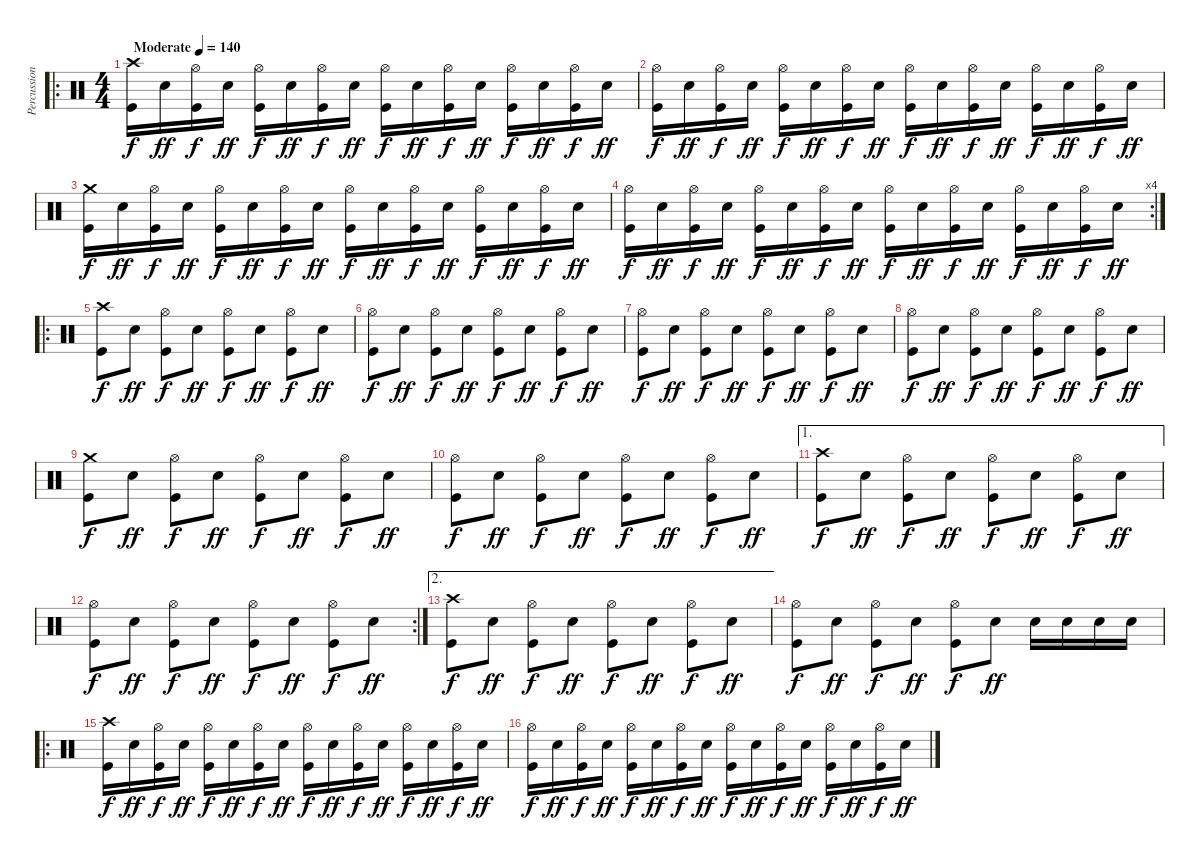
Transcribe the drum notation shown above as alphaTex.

\track ("Percussions" "Percussion") {instrument percussion}
\staff {score}
\articulation defaults
\ro
\ts (4 4)
\tempo (140 "Moderate")
\clef neutral
\ks c
("Crash high (hit)" "Kick (hit)").16{dy f} "Snare (hit) 2".16{dy ff} ("Hi-Hat (open)" "Kick (hit)").16{dy f} "Snare (hit) 2".16{dy ff} ("Hi-Hat (open)" "Kick (hit)").16{dy f} "Snare (hit) 2".16{dy ff} ("Hi-Hat (open)" "Kick (hit)").16{dy f} "Snare (hit) 2".16{dy ff} ("Hi-Hat (open)" "Kick (hit)").16{dy f} "Snare (hit) 2".16{dy ff} ("Hi-Hat (open)" "Kick (hit)").16{dy f} "Snare (hit) 2".16{dy ff} ("Hi-Hat (open)" "Kick (hit)").16{dy f} "Snare (hit) 2".16{dy ff} ("Hi-Hat (open)" "Kick (hit)").16{dy f} "Snare (hit) 2".16{dy ff} |
("Hi-Hat (open)" "Kick (hit)").16{dy f} "Snare (hit) 2".16{dy ff} ("Hi-Hat (open)" "Kick (hit)").16{dy f} "Snare (hit) 2".16{dy ff} ("Hi-Hat (open)" "Kick (hit)").16{dy f} "Snare (hit) 2".16{dy ff} ("Hi-Hat (open)" "Kick (hit)").16{dy f} "Snare (hit) 2".16{dy ff} ("Hi-Hat (open)" "Kick (hit)").16{dy f} "Snare (hit) 2".16{dy ff} ("Hi-Hat (open)" "Kick (hit)").16{dy f} "Snare (hit) 2".16{dy ff} ("Hi-Hat (open)" "Kick (hit)").16{dy f} "Snare (hit) 2".16{dy ff} ("Hi-Hat (open)" "Kick (hit)").16{dy f} "Snare (hit) 2".16{dy ff} |
("Crash medium (hit)" "Kick (hit)").16{dy f} "Snare (hit) 2".16{dy ff} ("Hi-Hat (open)" "Kick (hit)").16{dy f} "Snare (hit) 2".16{dy ff} ("Hi-Hat (open)" "Kick (hit)").16{dy f} "Snare (hit) 2".16{dy ff} ("Hi-Hat (open)" "Kick (hit)").16{dy f} "Snare (hit) 2".16{dy ff} ("Hi-Hat (open)" "Kick (hit)").16{dy f} "Snare (hit) 2".16{dy ff} ("Hi-Hat (open)" "Kick (hit)").16{dy f} "Snare (hit) 2".16{dy ff} ("Hi-Hat (open)" "Kick (hit)").16{dy f} "Snare (hit) 2".16{dy ff} ("Hi-Hat (open)" "Kick (hit)").16{dy f} "Snare (hit) 2".16{dy ff} |
\rc 4
("Hi-Hat (open)" "Kick (hit)").16{dy f} "Snare (hit) 2".16{dy ff} ("Hi-Hat (open)" "Kick (hit)").16{dy f} "Snare (hit) 2".16{dy ff} ("Hi-Hat (open)" "Kick (hit)").16{dy f} "Snare (hit) 2".16{dy ff} ("Hi-Hat (open)" "Kick (hit)").16{dy f} "Snare (hit) 2".16{dy ff} ("Hi-Hat (open)" "Kick (hit)").16{dy f} "Snare (hit) 2".16{dy ff} ("Hi-Hat (open)" "Kick (hit)").16{dy f} "Snare (hit) 2".16{dy ff} ("Hi-Hat (open)" "Kick (hit)").16{dy f} "Snare (hit) 2".16{dy ff} ("Hi-Hat (open)" "Kick (hit)").16{dy f} "Snare (hit) 2".16{dy ff} |
\ro
("Crash high (hit)" "Kick (hit)").8{dy f} "Snare (hit) 2".8{dy ff} ("Hi-Hat (open)" "Kick (hit)").8{dy f} "Snare (hit) 2".8{dy ff} ("Hi-Hat (open)" "Kick (hit)").8{dy f} "Snare (hit) 2".8{dy ff} ("Hi-Hat (open)" "Kick (hit)").8{dy f} "Snare (hit) 2".8{dy ff} |
("Hi-Hat (open)" "Kick (hit)").8{dy f} "Snare (hit) 2".8{dy ff} ("Hi-Hat (open)" "Kick (hit)").8{dy f} "Snare (hit) 2".8{dy ff} ("Hi-Hat (open)" "Kick (hit)").8{dy f} "Snare (hit) 2".8{dy ff} ("Hi-Hat (open)" "Kick (hit)").8{dy f} "Snare (hit) 2".8{dy ff} |
("Hi-Hat (open)" "Kick (hit)").8{dy f} "Snare (hit) 2".8{dy ff} ("Hi-Hat (open)" "Kick (hit)").8{dy f} "Snare (hit) 2".8{dy ff} ("Hi-Hat (open)" "Kick (hit)").8{dy f} "Snare (hit) 2".8{dy ff} ("Hi-Hat (open)" "Kick (hit)").8{dy f} "Snare (hit) 2".8{dy ff} |
("Hi-Hat (open)" "Kick (hit)").8{dy f} "Snare (hit) 2".8{dy ff} ("Hi-Hat (open)" "Kick (hit)").8{dy f} "Snare (hit) 2".8{dy ff} ("Hi-Hat (open)" "Kick (hit)").8{dy f} "Snare (hit) 2".8{dy ff} ("Hi-Hat (open)" "Kick (hit)").8{dy f} "Snare (hit) 2".8{dy ff} |
("Crash medium (hit)" "Kick (hit)").8{dy f} "Snare (hit) 2".8{dy ff} ("Hi-Hat (open)" "Kick (hit)").8{dy f} "Snare (hit) 2".8{dy ff} ("Hi-Hat (open)" "Kick (hit)").8{dy f} "Snare (hit) 2".8{dy ff} ("Hi-Hat (open)" "Kick (hit)").8{dy f} "Snare (hit) 2".8{dy ff} |
("Hi-Hat (open)" "Kick (hit)").8{dy f} "Snare (hit) 2".8{dy ff} ("Hi-Hat (open)" "Kick (hit)").8{dy f} "Snare (hit) 2".8{dy ff} ("Hi-Hat (open)" "Kick (hit)").8{dy f} "Snare (hit) 2".8{dy ff} ("Hi-Hat (open)" "Kick (hit)").8{dy f} "Snare (hit) 2".8{dy ff} |
\ae 1
("Crash high (hit)" "Kick (hit)").8{dy f} "Snare (hit) 2".8{dy ff} ("Hi-Hat (open)" "Kick (hit)").8{dy f} "Snare (hit) 2".8{dy ff} ("Hi-Hat (open)" "Kick (hit)").8{dy f} "Snare (hit) 2".8{dy ff} ("Hi-Hat (open)" "Kick (hit)").8{dy f} "Snare (hit) 2".8{dy ff} |
\rc 2
("Hi-Hat (open)" "Kick (hit)").8{dy f} "Snare (hit) 2".8{dy ff} ("Hi-Hat (open)" "Kick (hit)").8{dy f} "Snare (hit) 2".8{dy ff} ("Hi-Hat (open)" "Kick (hit)").8{dy f} "Snare (hit) 2".8{dy ff} ("Hi-Hat (open)" "Kick (hit)").8{dy f} "Snare (hit) 2".8{dy ff} |
\ae 2
("Crash high (hit)" "Kick (hit)").8{dy f} "Snare (hit) 2".8{dy ff} ("Hi-Hat (open)" "Kick (hit)").8{dy f} "Snare (hit) 2".8{dy ff} ("Hi-Hat (open)" "Kick (hit)").8{dy f} "Snare (hit) 2".8{dy ff} ("Hi-Hat (open)" "Kick (hit)").8{dy f} "Snare (hit) 2".8{dy ff} |
("Hi-Hat (open)" "Kick (hit)").8{dy f} "Snare (hit) 2".8{dy ff} ("Hi-Hat (open)" "Kick (hit)").8{dy f} "Snare (hit) 2".8{dy ff} ("Hi-Hat (open)" "Kick (hit)").8{dy f} "Snare (hit) 2".8{dy ff} "Snare (hit) 2".16 "Snare (hit) 2".16 "Snare (hit) 2".16 "Snare (hit) 2".16 |
\ro
("Crash high (hit)" "Kick (hit)").16{dy f} "Snare (hit) 2".16{dy ff} ("Hi-Hat (open)" "Kick (hit)").16{dy f} "Snare (hit) 2".16{dy ff} ("Hi-Hat (open)" "Kick (hit)").16{dy f} "Snare (hit) 2".16{dy ff} ("Hi-Hat (open)" "Kick (hit)").16{dy f} "Snare (hit) 2".16{dy ff} ("Hi-Hat (open)" "Kick (hit)").16{dy f} "Snare (hit) 2".16{dy ff} ("Hi-Hat (open)" "Kick (hit)").16{dy f} "Snare (hit) 2".16{dy ff} ("Hi-Hat (open)" "Kick (hit)").16{dy f} "Snare (hit) 2".16{dy ff} ("Hi-Hat (open)" "Kick (hit)").16{dy f} "Snare (hit) 2".16{dy ff} |
("Hi-Hat (open)" "Kick (hit)").16{dy f} "Snare (hit) 2".16{dy ff} ("Hi-Hat (open)" "Kick (hit)").16{dy f} "Snare (hit) 2".16{dy ff} ("Hi-Hat (open)" "Kick (hit)").16{dy f} "Snare (hit) 2".16{dy ff} ("Hi-Hat (open)" "Kick (hit)").16{dy f} "Snare (hit) 2".16{dy ff} ("Hi-Hat (open)" "Kick (hit)").16{dy f} "Snare (hit) 2".16{dy ff} ("Hi-Hat (open)" "Kick (hit)").16{dy f} "Snare (hit) 2".16{dy ff} ("Hi-Hat (open)" "Kick (hit)").16{dy f} "Snare (hit) 2".16{dy ff} ("Hi-Hat (open)" "Kick (hit)").16{dy f} "Snare (hit) 2".16{dy ff}
